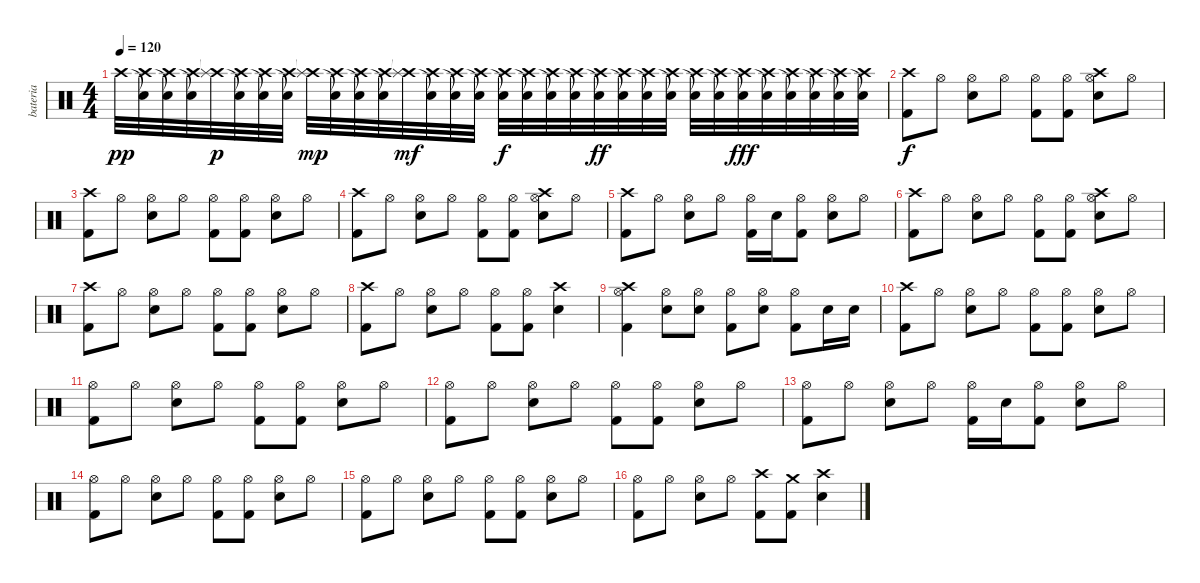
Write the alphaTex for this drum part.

\track ("bateria" "bateria") {instrument percussion}
\staff {score}
\articulation defaults
\ts (4 4)
\tempo 120
\clef neutral
\ks c "Crash high (hit)".32{dy pp}
("Snare (hit)"{t} "Crash high (hit)").32 ("Crash high (hit)" "Snare (hit)"{t}).32 ("Snare (hit)"{t} "Crash high (hit)").32 ("Crash high (hit)" "Splash (hit)"{t}).32{dy p} ("Snare (hit)"{t} "Crash high (hit)").32 ("Crash high (hit)" "Snare (hit)"{t}).32 ("Snare (hit)"{t} "Crash high (hit)").32 ("Crash high (hit)" "Splash (hit)"{t}).32{dy mp} ("Snare (hit)"{t} "Crash high (hit)").32 ("Crash high (hit)" "Snare (hit)"{t}).32 ("Snare (hit)"{t} "Crash high (hit)").32 ("Crash high (hit)" "Splash (hit)"{t}).32{dy mf} ("Snare (hit)"{t} "Crash high (hit)").32 ("Crash high (hit)" "Snare (hit)"{t}).32 ("Snare (hit)"{t} "Crash high (hit)").32 ("Crash high (hit)" "Snare (hit)"{t}).32{dy f} ("Snare (hit)"{t} "Crash high (hit)").32 ("Crash high (hit)" "Snare (hit)"{t}).32 ("Snare (hit)"{t} "Crash high (hit)").32 ("Crash high (hit)" "Snare (hit)"{t}).32{dy ff} ("Snare (hit)"{t} "Crash high (hit)").32 ("Crash high (hit)" "Snare (hit)"{t}).32 ("Snare (hit)"{t} "Crash high (hit)").32 ("Crash high (hit)" "Snare (hit)"{t}).32 ("Snare (hit)"{t} "Crash high (hit)").32 ("Crash high (hit)" "Snare (hit)"{t}).32{dy fff} ("Snare (hit)"{t} "Crash high (hit)").32 ("Crash high (hit)" "Snare (hit)"{t}).32 ("Snare (hit)"{t} "Crash high (hit)").32 ("Crash high (hit)" "Snare (hit)"{t}).32 ("Snare (hit)"{t} "Crash high (hit)").32 |
("Crash high (hit)" "Kick (hit) 2").8{dy f} "Hi-Hat (open)".8 ("Electric Snare (hit)" "Hi-Hat (open)").8 "Hi-Hat (open)".8 ("Kick (hit) 2" "Hi-Hat (open)").8 ("Kick (hit) 2" "Hi-Hat (open)").8 ("Crash high (hit)" "Electric Snare (hit)" "Hi-Hat (open)").8 "Hi-Hat (open)".8 |
("Crash high (hit)" "Kick (hit) 2").8 "Hi-Hat (open)".8 ("Electric Snare (hit)" "Hi-Hat (open)").8 "Hi-Hat (open)".8 ("Kick (hit) 2" "Hi-Hat (open)").8 ("Kick (hit) 2" "Hi-Hat (open)").8 ("Electric Snare (hit)" "Hi-Hat (open)").8 "Hi-Hat (open)".8 |
("Crash high (hit)" "Kick (hit) 2").8 "Hi-Hat (open)".8 ("Electric Snare (hit)" "Hi-Hat (open)").8 "Hi-Hat (open)".8 ("Kick (hit) 2" "Hi-Hat (open)").8 ("Kick (hit) 2" "Hi-Hat (open)").8 ("Crash high (hit)" "Electric Snare (hit)" "Hi-Hat (open)").8 "Hi-Hat (open)".8 |
("Crash high (hit)" "Kick (hit) 2").8 "Hi-Hat (open)".8 ("Electric Snare (hit)" "Hi-Hat (open)").8 "Hi-Hat (open)".8 ("Kick (hit) 2" "Hi-Hat (open)").16 "Electric Snare (hit)".16 ("Kick (hit) 2" "Hi-Hat (open)").8 ("Electric Snare (hit)" "Hi-Hat (open)").8 "Hi-Hat (open)".8 |
("Crash high (hit)" "Kick (hit) 2").8 "Hi-Hat (open)".8 ("Electric Snare (hit)" "Hi-Hat (open)").8 "Hi-Hat (open)".8 ("Kick (hit) 2" "Hi-Hat (open)").8 ("Kick (hit) 2" "Hi-Hat (open)").8 ("Crash high (hit)" "Electric Snare (hit)" "Hi-Hat (open)").8 "Hi-Hat (open)".8 |
("Crash high (hit)" "Kick (hit) 2").8 "Hi-Hat (open)".8 ("Electric Snare (hit)" "Hi-Hat (open)").8 "Hi-Hat (open)".8 ("Kick (hit) 2" "Hi-Hat (open)").8 ("Kick (hit) 2" "Hi-Hat (open)").8 ("Electric Snare (hit)" "Hi-Hat (open)").8 "Hi-Hat (open)".8 |
("Crash high (hit)" "Kick (hit) 2").8 "Hi-Hat (open)".8 ("Electric Snare (hit)" "Hi-Hat (open)").8 "Hi-Hat (open)".8 ("Kick (hit) 2" "Hi-Hat (open)").8 ("Kick (hit) 2" "Hi-Hat (open)").8 ("Crash high (hit)" "Electric Snare (hit)").4 |
("Crash high (hit)" "Kick (hit) 2" "Hi-Hat (open)").4 ("Electric Snare (hit)" "Hi-Hat (open)").8 ("Electric Snare (hit)" "Hi-Hat (open)").8 ("Kick (hit) 2" "Hi-Hat (open)").8 ("Electric Snare (hit)" "Hi-Hat (open)").8 ("Kick (hit) 2" "Hi-Hat (open)").8 "Electric Snare (hit)".16 "Electric Snare (hit)".16 |
("Crash high (hit)" "Kick (hit) 2").8 "Hi-Hat (open)".8 ("Electric Snare (hit)" "Hi-Hat (open)").8 "Hi-Hat (open)".8 ("Kick (hit) 2" "Hi-Hat (open)").8 ("Kick (hit) 2" "Hi-Hat (open)").8 ("Electric Snare (hit)" "Hi-Hat (open)").8 "Hi-Hat (open)".8 |
("Kick (hit) 2" "Hi-Hat (open)").8 "Hi-Hat (open)".8 ("Electric Snare (hit)" "Hi-Hat (open)").8 "Hi-Hat (open)".8 ("Kick (hit) 2" "Hi-Hat (open)").8 ("Kick (hit) 2" "Hi-Hat (open)").8 ("Electric Snare (hit)" "Hi-Hat (open)").8 "Hi-Hat (open)".8 |
("Kick (hit) 2" "Hi-Hat (open)").8 "Hi-Hat (open)".8 ("Electric Snare (hit)" "Hi-Hat (open)").8 "Hi-Hat (open)".8 ("Kick (hit) 2" "Hi-Hat (open)").8 ("Kick (hit) 2" "Hi-Hat (open)").8 ("Electric Snare (hit)" "Hi-Hat (open)").8 "Hi-Hat (open)".8 |
("Kick (hit) 2" "Hi-Hat (open)").8 "Hi-Hat (open)".8 ("Electric Snare (hit)" "Hi-Hat (open)").8 "Hi-Hat (open)".8 ("Kick (hit) 2" "Hi-Hat (open)").16 "Electric Snare (hit)".16 ("Kick (hit) 2" "Hi-Hat (open)").8 ("Electric Snare (hit)" "Hi-Hat (open)").8 "Hi-Hat (open)".8 |
("Kick (hit) 2" "Hi-Hat (open)").8 "Hi-Hat (open)".8 ("Electric Snare (hit)" "Hi-Hat (open)").8 "Hi-Hat (open)".8 ("Kick (hit) 2" "Hi-Hat (open)").8 ("Kick (hit) 2" "Hi-Hat (open)").8 ("Electric Snare (hit)" "Hi-Hat (open)").8 "Hi-Hat (open)".8 |
("Kick (hit) 2" "Hi-Hat (open)").8 "Hi-Hat (open)".8 ("Electric Snare (hit)" "Hi-Hat (open)").8 "Hi-Hat (open)".8 ("Kick (hit) 2" "Hi-Hat (open)").8 ("Kick (hit) 2" "Hi-Hat (open)").8 ("Electric Snare (hit)" "Hi-Hat (open)").8 "Hi-Hat (open)".8 |
("Kick (hit) 2" "Hi-Hat (open)").8 "Hi-Hat (open)".8 ("Electric Snare (hit)" "Hi-Hat (open)").8 "Hi-Hat (open)".8 ("Crash high (hit)" "Kick (hit) 2").8 ("Crash medium (hit)" "Kick (hit) 2").8 ("Crash high (hit)" "Electric Snare (hit)").4
